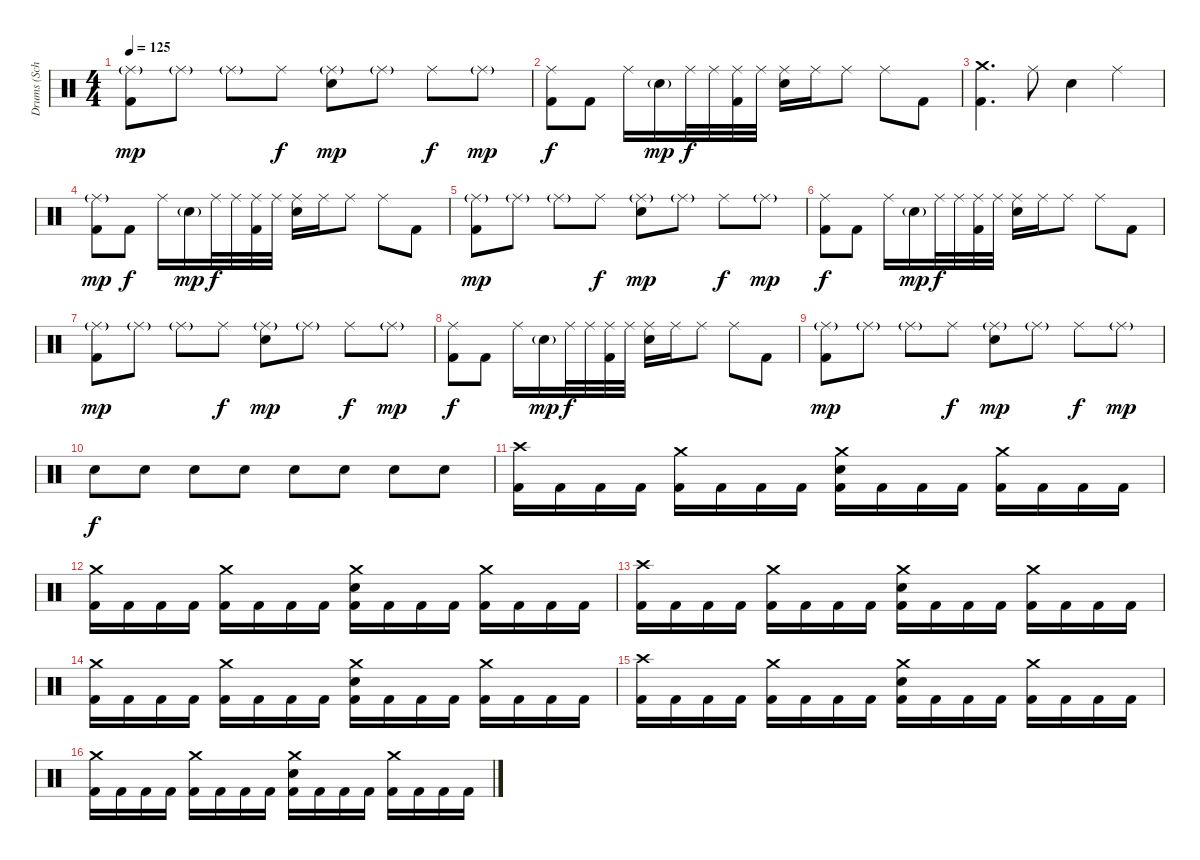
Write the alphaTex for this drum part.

\track ("Drums (Schill)" "Drums (Sch") {instrument percussion}
\staff {score}
\articulation defaults
\ts (4 4)
\tempo 125
\clef neutral
\ks c
("Ride (middle)"{g} "Kick (hit) 2").8{dy mp} "Ride (middle)"{g}.8 "Ride (middle)"{g}.8 "Ride (middle)".8{dy f} ("Ride (middle)"{g} "Electric Snare (hit)").8{dy mp} "Ride (middle)"{g}.8 "Ride (middle)".8{dy f} "Ride (middle)"{g}.8{dy mp} |
("Ride (middle)" "Kick (hit) 2").8{dy f} "Kick (hit) 2".8 "Ride (middle)".16 "Electric Snare (hit)"{g}.16{dy mp} "Ride (middle)".32{dy f} "Ride (middle)".32 ("Ride (middle)" "Kick (hit) 2").32 "Ride (middle)".32 ("Ride (middle)" "Electric Snare (hit)").16 "Ride (middle)".16 "Ride (middle)".8 "Ride (middle)".8 "Kick (hit) 2".8 |
("Crash medium (hit)" "Kick (hit) 2").4{d} "Ride (middle)".8 "Electric Snare (hit)".4 "Ride (middle)".4 |
("Ride (middle)"{g} "Kick (hit) 2").8{dy mp} "Kick (hit) 2".8{dy f} "Ride (middle)".16 "Electric Snare (hit)"{g}.16{dy mp} "Ride (middle)".32{dy f} "Ride (middle)".32 ("Ride (middle)" "Kick (hit) 2").32 "Ride (middle)".32 ("Ride (middle)" "Electric Snare (hit)").16 "Ride (middle)".16 "Ride (middle)".8 "Ride (middle)".8 "Kick (hit) 2".8 |
("Ride (middle)"{g} "Kick (hit) 2").8{dy mp} "Ride (middle)"{g}.8 "Ride (middle)"{g}.8 "Ride (middle)".8{dy f} ("Ride (middle)"{g} "Electric Snare (hit)").8{dy mp} "Ride (middle)"{g}.8 "Ride (middle)".8{dy f} "Ride (middle)"{g}.8{dy mp} |
("Ride (middle)" "Kick (hit) 2").8{dy f} "Kick (hit) 2".8 "Ride (middle)".16 "Electric Snare (hit)"{g}.16{dy mp} "Ride (middle)".32{dy f} "Ride (middle)".32 ("Ride (middle)" "Kick (hit) 2").32 "Ride (middle)".32 ("Ride (middle)" "Electric Snare (hit)").16 "Ride (middle)".16 "Ride (middle)".8 "Ride (middle)".8 "Kick (hit) 2".8 |
("Ride (middle)"{g} "Kick (hit) 2").8{dy mp} "Ride (middle)"{g}.8 "Ride (middle)"{g}.8 "Ride (middle)".8{dy f} ("Ride (middle)"{g} "Electric Snare (hit)").8{dy mp} "Ride (middle)"{g}.8 "Ride (middle)".8{dy f} "Ride (middle)"{g}.8{dy mp} |
("Ride (middle)" "Kick (hit) 2").8{dy f} "Kick (hit) 2".8 "Ride (middle)".16 "Electric Snare (hit)"{g}.16{dy mp} "Ride (middle)".32{dy f} "Ride (middle)".32 ("Ride (middle)" "Kick (hit) 2").32 "Ride (middle)".32 ("Ride (middle)" "Electric Snare (hit)").16 "Ride (middle)".16 "Ride (middle)".8 "Ride (middle)".8 "Kick (hit) 2".8 |
("Ride (middle)"{g} "Kick (hit) 2").8{dy mp} "Ride (middle)"{g}.8 "Ride (middle)"{g}.8 "Ride (middle)".8{dy f} ("Ride (middle)"{g} "Electric Snare (hit)").8{dy mp} "Ride (middle)"{g}.8 "Ride (middle)".8{dy f} "Ride (middle)"{g}.8{dy mp} |
"Electric Snare (hit)".8{dy f} "Electric Snare (hit)".8 "Electric Snare (hit)".8 "Electric Snare (hit)".8 "Electric Snare (hit)".8 "Electric Snare (hit)".8 "Electric Snare (hit)".8 "Electric Snare (hit)".8 |
("Crash high (hit)" "Kick (hit) 2").16 "Kick (hit) 2".16 "Kick (hit) 2".16 "Kick (hit) 2".16 ("Crash medium (hit)" "Kick (hit) 2").16 "Kick (hit) 2".16 "Kick (hit) 2".16 "Kick (hit) 2".16 ("Crash medium (hit)" "Electric Snare (hit)" "Kick (hit) 2").16 "Kick (hit) 2".16 "Kick (hit) 2".16 "Kick (hit) 2".16 ("Crash medium (hit)" "Kick (hit) 2").16 "Kick (hit) 2".16 "Kick (hit) 2".16 "Kick (hit) 2".16 |
("Crash medium (hit)" "Kick (hit) 2").16 "Kick (hit) 2".16 "Kick (hit) 2".16 "Kick (hit) 2".16 ("Crash medium (hit)" "Kick (hit) 2").16 "Kick (hit) 2".16 "Kick (hit) 2".16 "Kick (hit) 2".16 ("Crash medium (hit)" "Electric Snare (hit)" "Kick (hit) 2").16 "Kick (hit) 2".16 "Kick (hit) 2".16 "Kick (hit) 2".16 ("Crash medium (hit)" "Kick (hit) 2").16 "Kick (hit) 2".16 "Kick (hit) 2".16 "Kick (hit) 2".16 |
("Crash high (hit)" "Kick (hit) 2").16 "Kick (hit) 2".16 "Kick (hit) 2".16 "Kick (hit) 2".16 ("Crash medium (hit)" "Kick (hit) 2").16 "Kick (hit) 2".16 "Kick (hit) 2".16 "Kick (hit) 2".16 ("Crash medium (hit)" "Electric Snare (hit)" "Kick (hit) 2").16 "Kick (hit) 2".16 "Kick (hit) 2".16 "Kick (hit) 2".16 ("Crash medium (hit)" "Kick (hit) 2").16 "Kick (hit) 2".16 "Kick (hit) 2".16 "Kick (hit) 2".16 |
("Crash medium (hit)" "Kick (hit) 2").16 "Kick (hit) 2".16 "Kick (hit) 2".16 "Kick (hit) 2".16 ("Crash medium (hit)" "Kick (hit) 2").16 "Kick (hit) 2".16 "Kick (hit) 2".16 "Kick (hit) 2".16 ("Crash medium (hit)" "Electric Snare (hit)" "Kick (hit) 2").16 "Kick (hit) 2".16 "Kick (hit) 2".16 "Kick (hit) 2".16 ("Crash medium (hit)" "Kick (hit) 2").16 "Kick (hit) 2".16 "Kick (hit) 2".16 "Kick (hit) 2".16 |
("Crash high (hit)" "Kick (hit) 2").16 "Kick (hit) 2".16 "Kick (hit) 2".16 "Kick (hit) 2".16 ("Crash medium (hit)" "Kick (hit) 2").16 "Kick (hit) 2".16 "Kick (hit) 2".16 "Kick (hit) 2".16 ("Crash medium (hit)" "Electric Snare (hit)" "Kick (hit) 2").16 "Kick (hit) 2".16 "Kick (hit) 2".16 "Kick (hit) 2".16 ("Crash medium (hit)" "Kick (hit) 2").16 "Kick (hit) 2".16 "Kick (hit) 2".16 "Kick (hit) 2".16 |
("Crash medium (hit)" "Kick (hit) 2").16 "Kick (hit) 2".16 "Kick (hit) 2".16 "Kick (hit) 2".16 ("Crash medium (hit)" "Kick (hit) 2").16 "Kick (hit) 2".16 "Kick (hit) 2".16 "Kick (hit) 2".16 ("Crash medium (hit)" "Electric Snare (hit)" "Kick (hit) 2").16 "Kick (hit) 2".16 "Kick (hit) 2".16 "Kick (hit) 2".16 ("Crash medium (hit)" "Kick (hit) 2").16 "Kick (hit) 2".16 "Kick (hit) 2".16 "Kick (hit) 2".16
